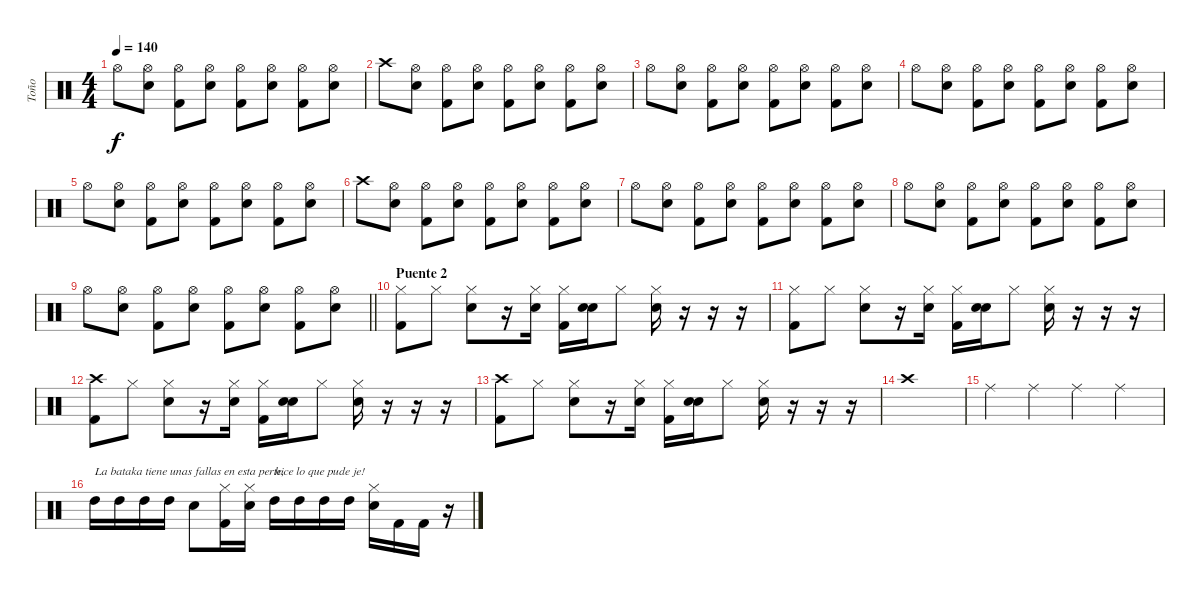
\track ("Toño" "Toño") {instrument percussion}
\staff {score}
\articulation defaults
\ts (4 4)
\tempo 140
\clef neutral
\ks c "Hi-Hat (open)".8{dy f}
("Hi-Hat (open)" "Electric Snare (hit)").8 ("Hi-Hat (open)" "Kick (hit) 2").8 ("Hi-Hat (open)" "Electric Snare (hit)").8 ("Hi-Hat (open)" "Kick (hit) 2").8 ("Hi-Hat (open)" "Electric Snare (hit)").8 ("Hi-Hat (open)" "Kick (hit) 2").8 ("Hi-Hat (open)" "Electric Snare (hit)").8 |
"Crash high (hit)".8 ("Hi-Hat (open)" "Electric Snare (hit)").8 ("Hi-Hat (open)" "Kick (hit) 2").8 ("Hi-Hat (open)" "Electric Snare (hit)").8 ("Hi-Hat (open)" "Kick (hit) 2").8 ("Hi-Hat (open)" "Electric Snare (hit)").8 ("Hi-Hat (open)" "Kick (hit) 2").8 ("Hi-Hat (open)" "Electric Snare (hit)").8 |
"Hi-Hat (open)".8 ("Hi-Hat (open)" "Electric Snare (hit)").8 ("Hi-Hat (open)" "Kick (hit) 2").8 ("Hi-Hat (open)" "Electric Snare (hit)").8 ("Hi-Hat (open)" "Kick (hit) 2").8 ("Hi-Hat (open)" "Electric Snare (hit)").8 ("Hi-Hat (open)" "Kick (hit) 2").8 ("Hi-Hat (open)" "Electric Snare (hit)").8 |
"Hi-Hat (open)".8 ("Hi-Hat (open)" "Electric Snare (hit)").8 ("Hi-Hat (open)" "Kick (hit) 2").8 ("Hi-Hat (open)" "Electric Snare (hit)").8 ("Hi-Hat (open)" "Kick (hit) 2").8 ("Hi-Hat (open)" "Electric Snare (hit)").8 ("Hi-Hat (open)" "Kick (hit) 2").8 ("Hi-Hat (open)" "Electric Snare (hit)").8 |
"Hi-Hat (open)".8 ("Hi-Hat (open)" "Electric Snare (hit)").8 ("Hi-Hat (open)" "Kick (hit) 2").8 ("Hi-Hat (open)" "Electric Snare (hit)").8 ("Hi-Hat (open)" "Kick (hit) 2").8 ("Hi-Hat (open)" "Electric Snare (hit)").8 ("Hi-Hat (open)" "Kick (hit) 2").8 ("Hi-Hat (open)" "Electric Snare (hit)").8 |
"Crash high (hit)".8 ("Hi-Hat (open)" "Electric Snare (hit)").8 ("Hi-Hat (open)" "Kick (hit) 2").8 ("Hi-Hat (open)" "Electric Snare (hit)").8 ("Hi-Hat (open)" "Kick (hit) 2").8 ("Hi-Hat (open)" "Electric Snare (hit)").8 ("Hi-Hat (open)" "Kick (hit) 2").8 ("Hi-Hat (open)" "Electric Snare (hit)").8 |
"Hi-Hat (open)".8 ("Hi-Hat (open)" "Electric Snare (hit)").8 ("Hi-Hat (open)" "Kick (hit) 2").8 ("Hi-Hat (open)" "Electric Snare (hit)").8 ("Hi-Hat (open)" "Kick (hit) 2").8 ("Hi-Hat (open)" "Electric Snare (hit)").8 ("Hi-Hat (open)" "Kick (hit) 2").8 ("Hi-Hat (open)" "Electric Snare (hit)").8 |
"Hi-Hat (open)".8 ("Hi-Hat (open)" "Electric Snare (hit)").8 ("Hi-Hat (open)" "Kick (hit) 2").8 ("Hi-Hat (open)" "Electric Snare (hit)").8 ("Hi-Hat (open)" "Kick (hit) 2").8 ("Hi-Hat (open)" "Electric Snare (hit)").8 ("Hi-Hat (open)" "Kick (hit) 2").8 ("Hi-Hat (open)" "Electric Snare (hit)").8 |
\barLineRight lightlight "Hi-Hat (open)".8
("Hi-Hat (open)" "Electric Snare (hit)").8 ("Hi-Hat (open)" "Kick (hit) 2").8 ("Hi-Hat (open)" "Electric Snare (hit)").8 ("Hi-Hat (open)" "Kick (hit) 2").8 ("Hi-Hat (open)" "Electric Snare (hit)").8 ("Hi-Hat (open)" "Kick (hit) 2").8 ("Hi-Hat (open)" "Electric Snare (hit)").8 |
\section ("" "Puente 2")
("Hi-Hat (closed)" "Kick (hit) 2").8 "Hi-Hat (closed)".8 ("Hi-Hat (closed)" "Electric Snare (hit)").8 r.16 ("Hi-Hat (closed)" "Electric Snare (hit)").16 ("Hi-Hat (closed)" "Kick (hit) 2").16 ("Electric Snare (hit)" "Electric Snare (hit)").16 "Hi-Hat (closed)".8 ("Hi-Hat (closed)" "Electric Snare (hit)").16 r.16 r.16 r.16 |
("Hi-Hat (closed)" "Kick (hit) 2").8 "Hi-Hat (closed)".8 ("Hi-Hat (closed)" "Electric Snare (hit)").8 r.16 ("Hi-Hat (closed)" "Electric Snare (hit)").16 ("Hi-Hat (closed)" "Kick (hit) 2").16 ("Electric Snare (hit)" "Electric Snare (hit)").16 "Hi-Hat (closed)".8 ("Hi-Hat (closed)" "Electric Snare (hit)").16 r.16 r.16 r.16 |
("Crash high (hit)" "Kick (hit) 2").8 "Hi-Hat (closed)".8 ("Hi-Hat (closed)" "Electric Snare (hit)").8 r.16 ("Hi-Hat (closed)" "Electric Snare (hit)").16 ("Hi-Hat (closed)" "Kick (hit) 2").16 ("Electric Snare (hit)" "Electric Snare (hit)").16 "Hi-Hat (closed)".8 ("Hi-Hat (closed)" "Electric Snare (hit)").16 r.16 r.16 r.16 |
("Crash high (hit)" "Kick (hit) 2").8 "Hi-Hat (closed)".8 ("Hi-Hat (closed)" "Electric Snare (hit)").8 r.16 ("Hi-Hat (closed)" "Electric Snare (hit)").16 ("Hi-Hat (closed)" "Kick (hit) 2").16 ("Electric Snare (hit)" "Electric Snare (hit)").16 "Hi-Hat (closed)".8 ("Hi-Hat (closed)" "Electric Snare (hit)").16 r.16 r.16 r.16 |
"Crash high (hit)".1 |
"Ride (middle)".4 "Ride (middle)".4 "Ride (middle)".4 "Ride (middle)".4 |
"High Tom (hit)".16{txt "La bataka tiene unas fallas en esta perte,"} "High Tom (hit)".16 "High Tom (hit)".16 "High Tom (hit)".16 "Electric Snare (hit)".8 ("Hi-Hat (closed)" "Kick (hit) 2").16 ("Hi-Hat (closed)" "Electric Snare (hit)").16 "High Tom (hit)".16{txt "hice lo que pude je!"} "High Tom (hit)".16 "High Tom (hit)".16 "High Tom (hit)".16 ("Hi-Hat (closed)" "Electric Snare (hit)").16 "Kick (hit) 2".16 "Kick (hit) 2".16 r.16
